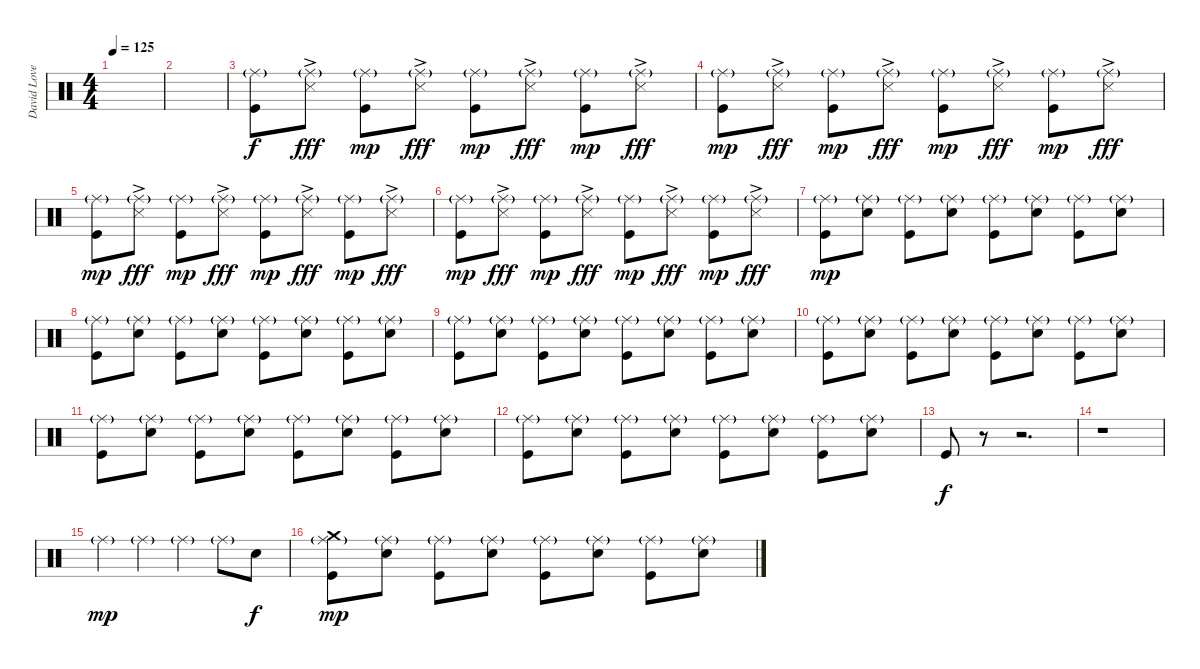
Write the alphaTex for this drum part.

\track ("David Lovering" "David Love") {instrument percussion}
\staff {score}
\articulation defaults
\ts (4 4)
\tempo 125
\clef neutral
\ks c
|
|
("Ride (middle)"{g} "Kick (hit)").8 ("Ride (middle)"{g} "Snare (side stick) 3"{ac}).8{dy fff} ("Ride (middle)"{g} "Kick (hit)").8{dy mp} ("Ride (middle)"{g} "Snare (side stick) 3"{ac}).8{dy fff} ("Ride (middle)"{g} "Kick (hit)").8{dy mp} ("Ride (middle)"{g} "Snare (side stick) 3"{ac}).8{dy fff} ("Ride (middle)"{g} "Kick (hit)").8{dy mp} ("Ride (middle)"{g} "Snare (side stick) 3"{ac}).8{dy fff} |
("Ride (middle)"{g} "Kick (hit)").8{dy mp} ("Ride (middle)"{g} "Snare (side stick) 3"{ac}).8{dy fff} ("Ride (middle)"{g} "Kick (hit)").8{dy mp} ("Ride (middle)"{g} "Snare (side stick) 3"{ac}).8{dy fff} ("Ride (middle)"{g} "Kick (hit)").8{dy mp} ("Ride (middle)"{g} "Snare (side stick) 3"{ac}).8{dy fff} ("Ride (middle)"{g} "Kick (hit)").8{dy mp} ("Ride (middle)"{g} "Snare (side stick) 3"{ac}).8{dy fff} |
("Ride (middle)"{g} "Kick (hit)").8{dy mp} ("Ride (middle)"{g} "Snare (side stick) 3"{ac}).8{dy fff} ("Ride (middle)"{g} "Kick (hit)").8{dy mp} ("Ride (middle)"{g} "Snare (side stick) 3"{ac}).8{dy fff} ("Ride (middle)"{g} "Kick (hit)").8{dy mp} ("Ride (middle)"{g} "Snare (side stick) 3"{ac}).8{dy fff} ("Ride (middle)"{g} "Kick (hit)").8{dy mp} ("Ride (middle)"{g} "Snare (side stick) 3"{ac}).8{dy fff} |
("Ride (middle)"{g} "Kick (hit)").8{dy mp} ("Ride (middle)"{g} "Snare (side stick) 3"{ac}).8{dy fff} ("Ride (middle)"{g} "Kick (hit)").8{dy mp} ("Ride (middle)"{g} "Snare (side stick) 3"{ac}).8{dy fff} ("Ride (middle)"{g} "Kick (hit)").8{dy mp} ("Ride (middle)"{g} "Snare (side stick) 3"{ac}).8{dy fff} ("Ride (middle)"{g} "Kick (hit)").8{dy mp} ("Ride (middle)"{g} "Snare (side stick) 3"{ac}).8{dy fff} |
\section ("" "")
("Ride (middle)"{g} "Kick (hit)").8{dy mp} ("Ride (middle)"{g} "Snare (hit) 2").8 ("Ride (middle)"{g} "Kick (hit)").8 ("Ride (middle)"{g} "Snare (hit) 2").8 ("Ride (middle)"{g} "Kick (hit)").8 ("Ride (middle)"{g} "Snare (hit) 2").8 ("Ride (middle)"{g} "Kick (hit)").8 ("Ride (middle)"{g} "Snare (hit) 2").8 |
("Ride (middle)"{g} "Kick (hit)").8 ("Ride (middle)"{g} "Snare (hit) 2").8 ("Ride (middle)"{g} "Kick (hit)").8 ("Ride (middle)"{g} "Snare (hit) 2").8 ("Ride (middle)"{g} "Kick (hit)").8 ("Ride (middle)"{g} "Snare (hit) 2").8 ("Ride (middle)"{g} "Kick (hit)").8 ("Ride (middle)"{g} "Snare (hit) 2").8 |
("Ride (middle)"{g} "Kick (hit)").8 ("Ride (middle)"{g} "Snare (hit) 2").8 ("Ride (middle)"{g} "Kick (hit)").8 ("Ride (middle)"{g} "Snare (hit) 2").8 ("Ride (middle)"{g} "Kick (hit)").8 ("Ride (middle)"{g} "Snare (hit) 2").8 ("Ride (middle)"{g} "Kick (hit)").8 ("Ride (middle)"{g} "Snare (hit) 2").8 |
("Ride (middle)"{g} "Kick (hit)").8 ("Ride (middle)"{g} "Snare (hit) 2").8 ("Ride (middle)"{g} "Kick (hit)").8 ("Ride (middle)"{g} "Snare (hit) 2").8 ("Ride (middle)"{g} "Kick (hit)").8 ("Ride (middle)"{g} "Snare (hit) 2").8 ("Ride (middle)"{g} "Kick (hit)").8 ("Ride (middle)"{g} "Snare (hit) 2").8 |
("Ride (middle)"{g} "Kick (hit)").8 ("Ride (middle)"{g} "Snare (hit) 2").8 ("Ride (middle)"{g} "Kick (hit)").8 ("Ride (middle)"{g} "Snare (hit) 2").8 ("Ride (middle)"{g} "Kick (hit)").8 ("Ride (middle)"{g} "Snare (hit) 2").8 ("Ride (middle)"{g} "Kick (hit)").8 ("Ride (middle)"{g} "Snare (hit) 2").8 |
("Ride (middle)"{g} "Kick (hit)").8 ("Ride (middle)"{g} "Snare (hit) 2").8 ("Ride (middle)"{g} "Kick (hit)").8 ("Ride (middle)"{g} "Snare (hit) 2").8 ("Ride (middle)"{g} "Kick (hit)").8 ("Ride (middle)"{g} "Snare (hit) 2").8 ("Ride (middle)"{g} "Kick (hit)").8 ("Ride (middle)"{g} "Snare (hit) 2").8 |
\section ("" "")
"Kick (hit)".8{dy f} r.8 r.2{d} |
r.1 |
"Ride (middle)"{g}.4{dy mp} "Ride (middle)"{g}.4 "Ride (middle)"{g}.4 "Ride (middle)"{g}.8 "Snare (hit) 2".8{dy f} |
("Ride (middle)"{g} "Crash medium (hit)" "Kick (hit)").8{dy mp} ("Ride (middle)"{g} "Snare (hit) 2").8 ("Ride (middle)"{g} "Kick (hit)").8 ("Ride (middle)"{g} "Snare (hit) 2").8 ("Ride (middle)"{g} "Kick (hit)").8 ("Ride (middle)"{g} "Snare (hit) 2").8 ("Ride (middle)"{g} "Kick (hit)").8 ("Ride (middle)"{g} "Snare (hit) 2").8
